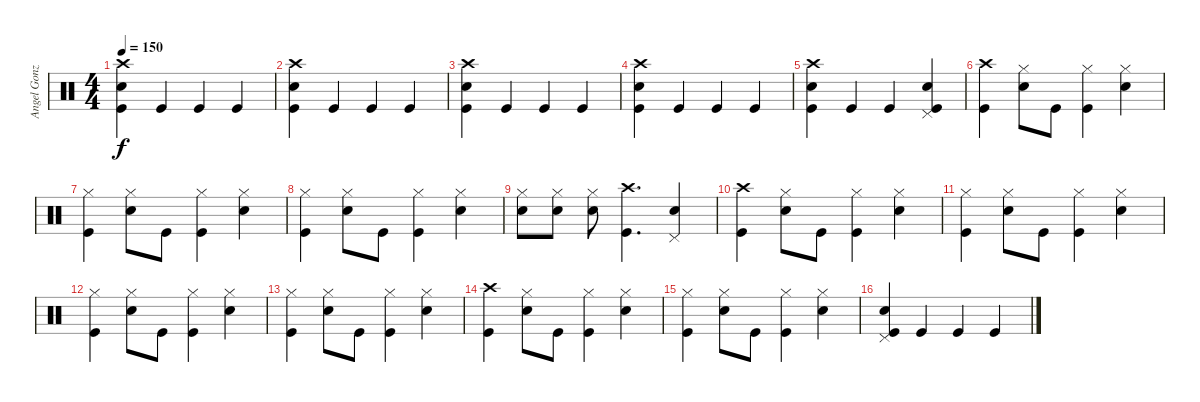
\track ("Angel González - Batería" "Angel Gonz") {instrument percussion}
\staff {score}
\articulation defaults
\ts (4 4)
\tempo 150
\clef neutral
\ks c
("Crash high (hit)" "Electric Snare (hit)" "Kick (hit)").4{dy f} "Kick (hit)".4 "Kick (hit)".4 "Kick (hit)".4 |
("Crash high (hit)" "Electric Snare (hit)" "Kick (hit)").4 "Kick (hit)".4 "Kick (hit)".4 "Kick (hit)".4 |
("Crash high (hit)" "Electric Snare (hit)" "Kick (hit)").4 "Kick (hit)".4 "Kick (hit)".4 "Kick (hit)".4 |
("Crash high (hit)" "Electric Snare (hit)" "Kick (hit)").4 "Kick (hit)".4 "Kick (hit)".4 "Kick (hit)".4 |
("Crash high (hit)" "Electric Snare (hit)" "Kick (hit)").4 "Kick (hit)".4 "Kick (hit)".4 ("Electric Snare (hit)" "Pedal Hi-Hat (hit)" "Kick (hit)").4 |
("Crash high (hit)" "Kick (hit)").4 ("Hi-Hat (closed)" "Electric Snare (hit)").8 "Kick (hit)".8 ("Hi-Hat (closed)" "Kick (hit)").4 ("Hi-Hat (closed)" "Electric Snare (hit)").4 |
("Hi-Hat (closed)" "Kick (hit)").4 ("Hi-Hat (closed)" "Electric Snare (hit)").8 "Kick (hit)".8 ("Hi-Hat (closed)" "Kick (hit)").4 ("Hi-Hat (closed)" "Electric Snare (hit)").4 |
("Hi-Hat (closed)" "Kick (hit)").4 ("Hi-Hat (closed)" "Electric Snare (hit)").8 "Kick (hit)".8 ("Hi-Hat (closed)" "Kick (hit)").4 ("Hi-Hat (closed)" "Electric Snare (hit)").4 |
("Hi-Hat (closed)" "Electric Snare (hit)").8 ("Hi-Hat (closed)" "Electric Snare (hit)").8 ("Hi-Hat (closed)" "Electric Snare (hit)").8 ("Crash high (hit)" "Kick (hit)").4{d} ("Electric Snare (hit)" "Pedal Hi-Hat (hit)").4 |
("Crash high (hit)" "Kick (hit)").4 ("Hi-Hat (closed)" "Electric Snare (hit)").8 "Kick (hit)".8 ("Hi-Hat (closed)" "Kick (hit)").4 ("Hi-Hat (closed)" "Electric Snare (hit)").4 |
("Hi-Hat (closed)" "Kick (hit)").4 ("Hi-Hat (closed)" "Electric Snare (hit)").8 "Kick (hit)".8 ("Hi-Hat (closed)" "Kick (hit)").4 ("Hi-Hat (closed)" "Electric Snare (hit)").4 |
("Hi-Hat (closed)" "Kick (hit)").4 ("Hi-Hat (closed)" "Electric Snare (hit)").8 "Kick (hit)".8 ("Hi-Hat (closed)" "Kick (hit)").4 ("Hi-Hat (closed)" "Electric Snare (hit)").4 |
("Hi-Hat (closed)" "Kick (hit)").4 ("Hi-Hat (closed)" "Electric Snare (hit)").8 "Kick (hit)".8 ("Hi-Hat (closed)" "Kick (hit)").4 ("Hi-Hat (closed)" "Electric Snare (hit)").4 |
("Crash high (hit)" "Kick (hit)").4 ("Hi-Hat (closed)" "Electric Snare (hit)").8 "Kick (hit)".8 ("Hi-Hat (closed)" "Kick (hit)").4 ("Hi-Hat (closed)" "Electric Snare (hit)").4 |
("Hi-Hat (closed)" "Kick (hit)").4 ("Hi-Hat (closed)" "Electric Snare (hit)").8 "Kick (hit)".8 ("Hi-Hat (closed)" "Kick (hit)").4 ("Hi-Hat (closed)" "Electric Snare (hit)").4 |
("Electric Snare (hit)" "Pedal Hi-Hat (hit)" "Kick (hit)").4 "Kick (hit)".4 "Kick (hit)".4 "Kick (hit)".4
